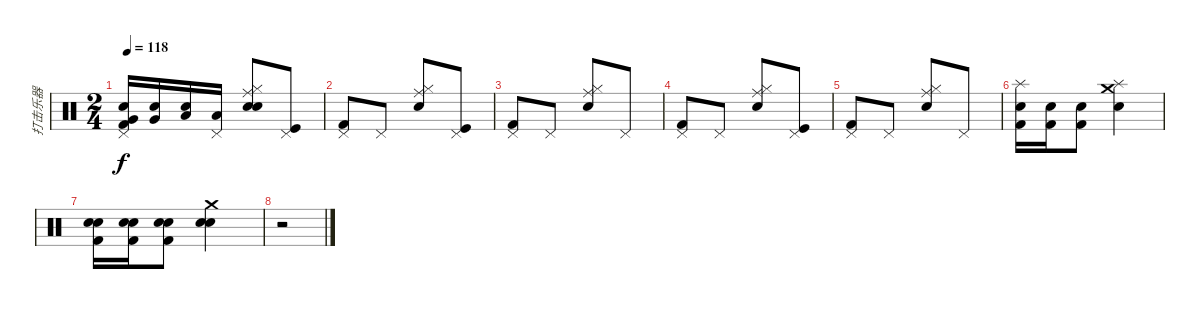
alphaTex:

\track ("打击乐器" "打击乐器") {instrument percussion}
\staff {score}
\articulation defaults
\ts (2 4)
\tempo 118
\clef neutral
\ks c
("Very Low Tom (hit)" "Pedal Hi-Hat (hit)" "Electric Snare (hit)" "Kick (hit) 2").16{dy f} ("Very Low Tom (hit)" "Electric Snare (hit)").16 ("Low Floor Tom (hit)" "Electric Snare (hit)").16 ("Low Floor Tom (hit)" "Pedal Hi-Hat (hit)").16 ("Ride (middle)" "Hi-Hat (closed)" "Electric Snare (hit)" "Snare (hit) 2").8 ("Pedal Hi-Hat (hit)" "Kick (hit)").8 |
("Pedal Hi-Hat (hit)" "Kick (hit) 2").8 "Pedal Hi-Hat (hit)".8 ("Ride (middle)" "Hi-Hat (closed)" "Snare (hit) 2").8 ("Pedal Hi-Hat (hit)" "Kick (hit)").8 |
("Pedal Hi-Hat (hit)" "Kick (hit) 2").8 "Pedal Hi-Hat (hit)".8 ("Ride (middle)" "Hi-Hat (closed)" "Snare (hit) 2").8 "Pedal Hi-Hat (hit)".8 |
("Pedal Hi-Hat (hit)" "Kick (hit) 2").8 "Pedal Hi-Hat (hit)".8 ("Ride (middle)" "Hi-Hat (closed)" "Snare (hit) 2").8 ("Pedal Hi-Hat (hit)" "Kick (hit)").8 |
("Pedal Hi-Hat (hit)" "Kick (hit) 2").8 "Pedal Hi-Hat (hit)".8 ("Ride (middle)" "Hi-Hat (closed)" "Snare (hit) 2").8 "Pedal Hi-Hat (hit)".8 |
("Splash (hit)" "Snare (hit) 2" "Kick (hit) 2").16 ("Snare (hit) 2" "Kick (hit) 2").16 ("Snare (hit) 2" "Kick (hit) 2").8 ("Crash medium (hit)" "Snare (hit) 2" "Splash (hit)").4 |
("Electric Snare (hit)" "Snare (hit) 2" "Kick (hit) 2").16 ("Electric Snare (hit)" "Snare (hit) 2" "Kick (hit) 2").16 ("Electric Snare (hit)" "Snare (hit) 2" "Kick (hit) 2").8 ("Crash medium (hit)" "Electric Snare (hit)" "Snare (hit) 2").4 |
r.2
